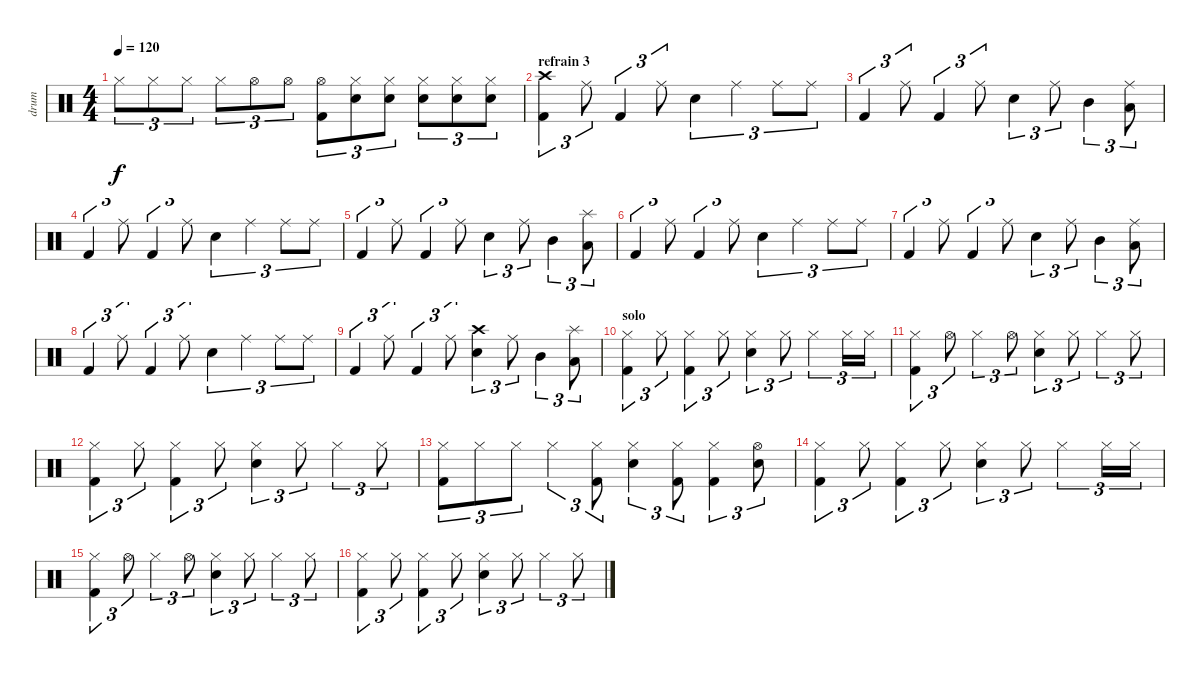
\track ("drum" "drum") {instrument percussion}
\staff {score}
\articulation defaults
\ts (4 4)
\tempo 120
\clef neutral
\ks c "Hi-Hat (closed)".8{tu (3 2) dy f} "Hi-Hat (closed)".8{tu (3 2)} "Hi-Hat (closed)".8{tu (3 2)} "Hi-Hat (closed)".8{tu (3 2)} "Hi-Hat (open)".8{tu (3 2)} "Hi-Hat (open)".8{tu (3 2)}
("Hi-Hat (open)" "Kick (hit) 2").8{tu (3 2)} ("Hi-Hat (closed)" "Electric Snare (hit)").8{tu (3 2)} ("Hi-Hat (closed)" "Electric Snare (hit)").8{tu (3 2)} ("Hi-Hat (closed)" "Electric Snare (hit)").8{tu (3 2)} ("Hi-Hat (closed)" "Electric Snare (hit)").8{tu (3 2)} ("Hi-Hat (closed)" "Electric Snare (hit)").8{tu (3 2)} |
\section ("" "refrain 3")
("Crash high (hit)" "Kick (hit) 2").4{tu (3 2)} "Ride (middle)".8{tu (3 2)} "Kick (hit) 2".4{tu (3 2)} "Ride (middle)".8{tu (3 2)} "Electric Snare (hit)".4{tu (3 2)} "Ride (middle)".4{tu (3 2)} "Ride (middle)".8{tu (3 2)} "Ride (middle)".8{tu (3 2)} |
"Kick (hit) 2".4{tu (3 2)} "Ride (middle)".8{tu (3 2)} "Kick (hit) 2".4{tu (3 2)} "Ride (middle)".8{tu (3 2)} "Electric Snare (hit)".4{tu (3 2)} "Ride (middle)".8{tu (3 2)} "Mid Tom (hit)".4{tu (3 2)} ("Ride (middle)" "Low Tom (hit)").8{tu (3 2)} |
"Kick (hit) 2".4{tu (3 2)} "Ride (middle)".8{tu (3 2)} "Kick (hit) 2".4{tu (3 2)} "Ride (middle)".8{tu (3 2)} "Electric Snare (hit)".4{tu (3 2)} "Ride (middle)".4{tu (3 2)} "Ride (middle)".8{tu (3 2)} "Ride (middle)".8{tu (3 2)} |
"Kick (hit) 2".4{tu (3 2)} "Ride (middle)".8{tu (3 2)} "Kick (hit) 2".4{tu (3 2)} "Ride (middle)".8{tu (3 2)} "Electric Snare (hit)".4{tu (3 2)} "Ride (middle)".8{tu (3 2)} "Mid Tom (hit)".4{tu (3 2)} ("Splash (hit)" "Low Tom (hit)").8{tu (3 2)} |
"Kick (hit) 2".4{tu (3 2)} "Ride (middle)".8{tu (3 2)} "Kick (hit) 2".4{tu (3 2)} "Ride (middle)".8{tu (3 2)} "Electric Snare (hit)".4{tu (3 2)} "Ride (middle)".4{tu (3 2)} "Ride (middle)".8{tu (3 2)} "Ride (middle)".8{tu (3 2)} |
"Kick (hit) 2".4{tu (3 2)} "Ride (middle)".8{tu (3 2)} "Kick (hit) 2".4{tu (3 2)} "Ride (middle)".8{tu (3 2)} "Electric Snare (hit)".4{tu (3 2)} "Ride (middle)".8{tu (3 2)} "Mid Tom (hit)".4{tu (3 2)} ("Ride (middle)" "Low Tom (hit)").8{tu (3 2)} |
"Kick (hit) 2".4{tu (3 2)} "Ride (middle)".8{tu (3 2)} "Kick (hit) 2".4{tu (3 2)} "Ride (middle)".8{tu (3 2)} "Electric Snare (hit)".4{tu (3 2)} "Ride (middle)".4{tu (3 2)} "Ride (middle)".8{tu (3 2)} "Ride (middle)".8{tu (3 2)} |
"Kick (hit) 2".4{tu (3 2)} "Ride (middle)".8{tu (3 2)} "Kick (hit) 2".4{tu (3 2)} "Ride (middle)".8{tu (3 2)} ("Crash high (hit)" "Electric Snare (hit)").4{tu (3 2)} "Ride (middle)".8{tu (3 2)} "Mid Tom (hit)".4{tu (3 2)} ("Splash (hit)" "Low Tom (hit)").8{tu (3 2)} |
\section ("" "solo")
("Hi-Hat (closed)" "Kick (hit) 2").4{tu (3 2)} "Hi-Hat (closed)".8{tu (3 2)} ("Hi-Hat (closed)" "Kick (hit) 2").4{tu (3 2)} "Hi-Hat (closed)".8{tu (3 2)} ("Hi-Hat (closed)" "Electric Snare (hit)").4{tu (3 2)} "Hi-Hat (closed)".8{tu (3 2)} "Hi-Hat (closed)".4{tu (3 2)} "Hi-Hat (closed)".16{tu (3 2)} "Hi-Hat (closed)".16{tu (3 2)} |
("Hi-Hat (closed)" "Kick (hit) 2").4{tu (3 2)} "Hi-Hat (open)".8{tu (3 2)} "Hi-Hat (closed)".4{tu (3 2)} "Hi-Hat (open)".8{tu (3 2)} ("Hi-Hat (closed)" "Electric Snare (hit)").4{tu (3 2)} "Hi-Hat (closed)".8{tu (3 2)} "Hi-Hat (closed)".4{tu (3 2)} "Hi-Hat (closed)".8{tu (3 2)} |
("Hi-Hat (closed)" "Kick (hit) 2").4{tu (3 2)} "Hi-Hat (closed)".8{tu (3 2)} ("Hi-Hat (closed)" "Kick (hit) 2").4{tu (3 2)} "Hi-Hat (closed)".8{tu (3 2)} ("Hi-Hat (closed)" "Electric Snare (hit)").4{tu (3 2)} "Hi-Hat (closed)".8{tu (3 2)} "Hi-Hat (closed)".4{tu (3 2)} "Hi-Hat (closed)".8{tu (3 2)} |
("Hi-Hat (closed)" "Kick (hit) 2").8{tu (3 2)} "Hi-Hat (closed)".8{tu (3 2)} "Hi-Hat (closed)".8{tu (3 2)} "Hi-Hat (closed)".4{tu (3 2)} ("Hi-Hat (closed)" "Kick (hit) 2").8{tu (3 2)} ("Hi-Hat (closed)" "Electric Snare (hit)").4{tu (3 2)} ("Hi-Hat (closed)" "Kick (hit) 2").8{tu (3 2)} ("Hi-Hat (closed)" "Kick (hit) 2").4{tu (3 2)} ("Hi-Hat (open)" "Electric Snare (hit)").8{tu (3 2)} |
("Hi-Hat (closed)" "Kick (hit) 2").4{tu (3 2)} "Hi-Hat (closed)".8{tu (3 2)} ("Hi-Hat (closed)" "Kick (hit) 2").4{tu (3 2)} "Hi-Hat (closed)".8{tu (3 2)} ("Hi-Hat (closed)" "Electric Snare (hit)").4{tu (3 2)} "Hi-Hat (closed)".8{tu (3 2)} "Hi-Hat (closed)".4{tu (3 2)} "Hi-Hat (closed)".16{tu (3 2)} "Hi-Hat (closed)".16{tu (3 2)} |
("Hi-Hat (closed)" "Kick (hit) 2").4{tu (3 2)} "Hi-Hat (open)".8{tu (3 2)} "Hi-Hat (closed)".4{tu (3 2)} "Hi-Hat (open)".8{tu (3 2)} ("Hi-Hat (closed)" "Electric Snare (hit)").4{tu (3 2)} "Hi-Hat (closed)".8{tu (3 2)} "Hi-Hat (closed)".4{tu (3 2)} "Hi-Hat (closed)".8{tu (3 2)} |
("Hi-Hat (closed)" "Kick (hit) 2").4{tu (3 2)} "Hi-Hat (closed)".8{tu (3 2)} ("Hi-Hat (closed)" "Kick (hit) 2").4{tu (3 2)} "Hi-Hat (closed)".8{tu (3 2)} ("Hi-Hat (closed)" "Electric Snare (hit)").4{tu (3 2)} "Hi-Hat (closed)".8{tu (3 2)} "Hi-Hat (closed)".4{tu (3 2)} "Hi-Hat (closed)".8{tu (3 2)}
